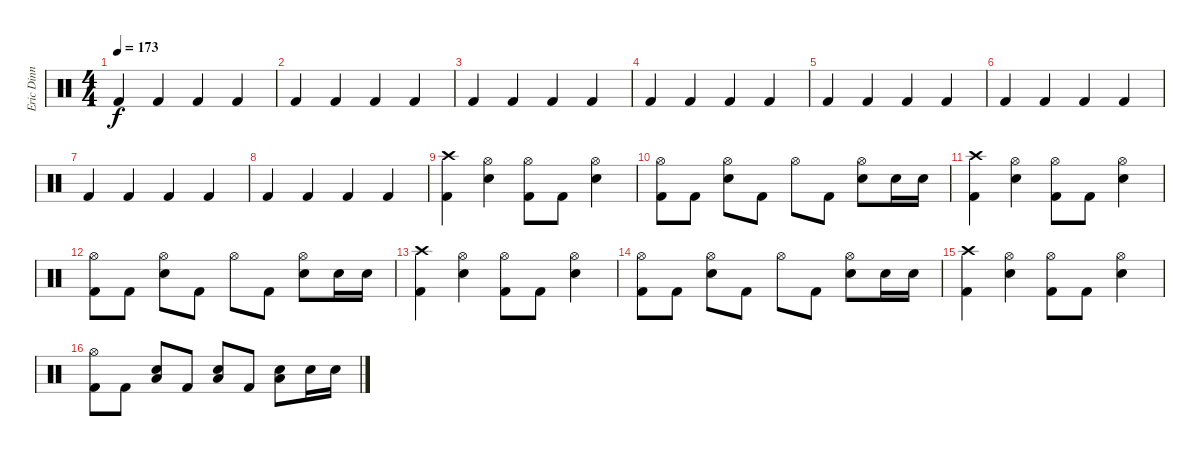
\track ("Eric Dinn" "Eric Dinn") {instrument percussion}
\staff {score}
\articulation defaults
\ts (4 4)
\tempo 173
\clef neutral
\ks c "Kick (hit) 2".4{dy f} "Kick (hit) 2".4 "Kick (hit) 2".4 "Kick (hit) 2".4
|
"Kick (hit) 2".4 "Kick (hit) 2".4 "Kick (hit) 2".4 "Kick (hit) 2".4 |
"Kick (hit) 2".4 "Kick (hit) 2".4 "Kick (hit) 2".4 "Kick (hit) 2".4 |
"Kick (hit) 2".4 "Kick (hit) 2".4 "Kick (hit) 2".4 "Kick (hit) 2".4 |
"Kick (hit) 2".4 "Kick (hit) 2".4 "Kick (hit) 2".4 "Kick (hit) 2".4 |
"Kick (hit) 2".4 "Kick (hit) 2".4 "Kick (hit) 2".4 "Kick (hit) 2".4 |
"Kick (hit) 2".4 "Kick (hit) 2".4 "Kick (hit) 2".4 "Kick (hit) 2".4 |
"Kick (hit) 2".4 "Kick (hit) 2".4 "Kick (hit) 2".4 "Kick (hit) 2".4 |
("Crash high (hit)" "Kick (hit) 2").4 ("Hi-Hat (open)" "Snare (hit) 2").4 ("Hi-Hat (open)" "Kick (hit) 2").8 "Kick (hit) 2".8 ("Hi-Hat (open)" "Snare (hit) 2").4 |
("Hi-Hat (open)" "Kick (hit) 2").8 "Kick (hit) 2".8 ("Hi-Hat (open)" "Snare (hit) 2").8 "Kick (hit) 2".8 "Hi-Hat (open)".8 "Kick (hit) 2".8 ("Hi-Hat (open)" "Snare (hit) 2").8 "Snare (hit) 2".16 "Snare (hit) 2".16 |
("Crash high (hit)" "Kick (hit) 2").4 ("Hi-Hat (open)" "Snare (hit) 2").4 ("Hi-Hat (open)" "Kick (hit) 2").8 "Kick (hit) 2".8 ("Hi-Hat (open)" "Snare (hit) 2").4 |
("Hi-Hat (open)" "Kick (hit) 2").8 "Kick (hit) 2".8 ("Hi-Hat (open)" "Snare (hit) 2").8 "Kick (hit) 2".8 "Hi-Hat (open)".8 "Kick (hit) 2".8 ("Hi-Hat (open)" "Snare (hit) 2").8 "Snare (hit) 2".16 "Snare (hit) 2".16 |
("Crash high (hit)" "Kick (hit) 2").4 ("Hi-Hat (open)" "Snare (hit) 2").4 ("Hi-Hat (open)" "Kick (hit) 2").8 "Kick (hit) 2".8 ("Hi-Hat (open)" "Snare (hit) 2").4 |
("Hi-Hat (open)" "Kick (hit) 2").8 "Kick (hit) 2".8 ("Hi-Hat (open)" "Snare (hit) 2").8 "Kick (hit) 2".8 "Hi-Hat (open)".8 "Kick (hit) 2".8 ("Hi-Hat (open)" "Snare (hit) 2").8 "Snare (hit) 2".16 "Snare (hit) 2".16 |
("Crash high (hit)" "Kick (hit) 2").4 ("Hi-Hat (open)" "Snare (hit) 2").4 ("Hi-Hat (open)" "Kick (hit) 2").8 "Kick (hit) 2".8 ("Hi-Hat (open)" "Snare (hit) 2").4 |
("Hi-Hat (open)" "Kick (hit) 2").8 "Kick (hit) 2".8 ("Low Tom (hit)" "Snare (hit) 2").8 "Kick (hit) 2".8 ("Low Tom (hit)" "Snare (hit) 2").8 "Kick (hit) 2".8 ("Low Tom (hit)" "Snare (hit) 2").8 "Snare (hit) 2".16 "Snare (hit) 2".16
